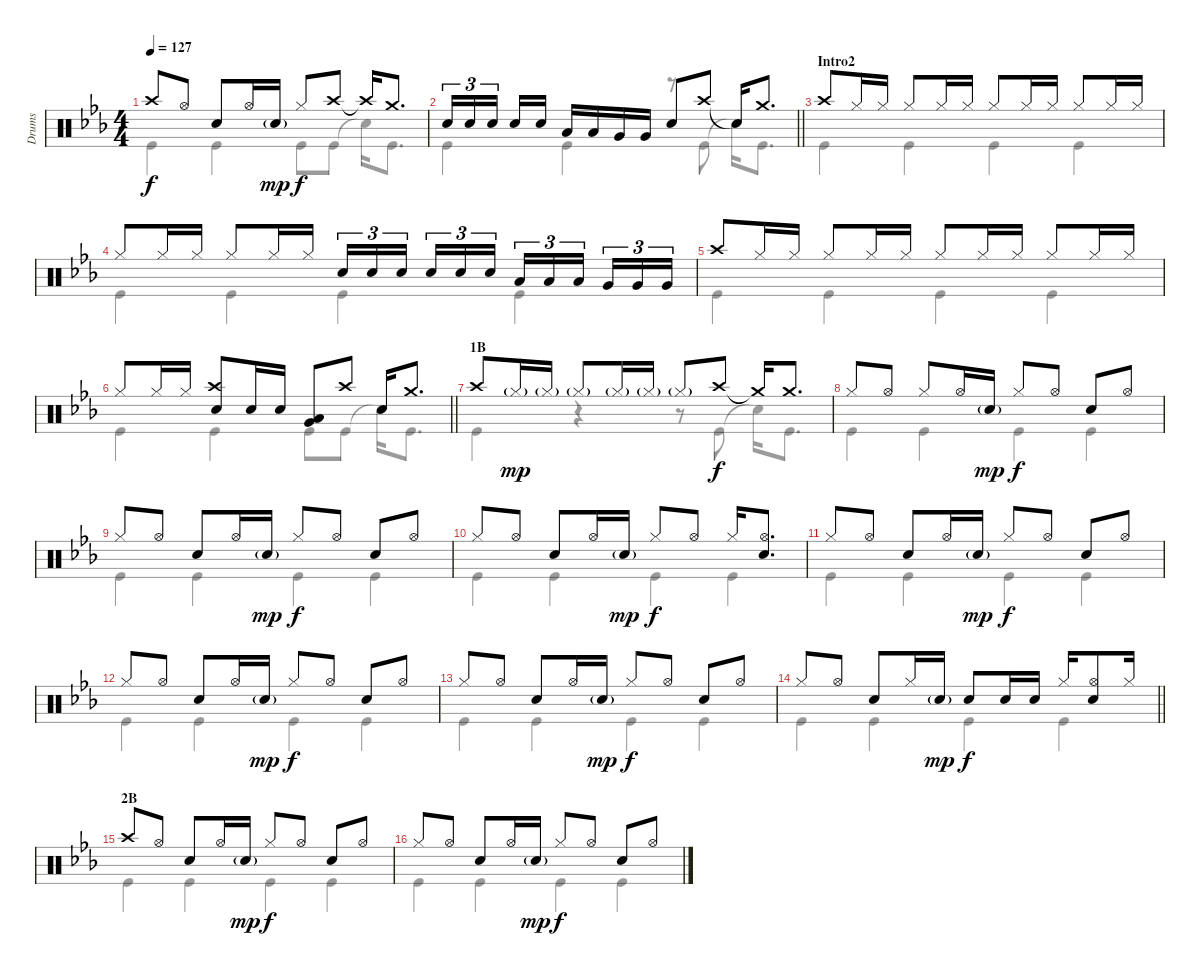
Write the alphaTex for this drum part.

\track ("Drums" "Drums") {instrument percussion}
\staff {score}
\articulation defaults
\voice
\ts (4 4)
\tempo 127
\clef neutral
\ks eb "Crash high (hit)".8{dy f} "Hi-Hat (open)".8 "Snare (hit) 2".8 "Hi-Hat (open)".16 "Snare (hit) 2"{g}.16{dy mp} "Hi-Hat (closed)".8{dy f} "Crash high (hit)".8 "Crash high (hit)"{t}.16 "Crash medium (hit)".8{d}
|
\barLineRight lightlight "Snare (hit) 2".16{tu (3 2)} "Snare (hit) 2".16{tu (3 2)} "Snare (hit) 2".16{tu (3 2) beam splitsecondary} "Snare (hit) 2".16 "Snare (hit) 2".16 "Low Tom (hit)".16 "Low Tom (hit)".16 "Very Low Tom (hit)".16 "Very Low Tom (hit)".16 "Snare (hit) 2".8 "Crash high (hit)".8 "Snare (hit)"{t}.16 "Crash medium (hit)".8{d}
|
\section ("" "Intro2")
"Crash high (hit)".8 "Hi-Hat (closed)".16 "Hi-Hat (closed)".16 "Hi-Hat (closed)".8 "Hi-Hat (closed)".16 "Hi-Hat (closed)".16 "Hi-Hat (closed)".8 "Hi-Hat (closed)".16 "Hi-Hat (closed)".16 "Hi-Hat (closed)".8 "Hi-Hat (closed)".16 "Hi-Hat (closed)".16 |
"Hi-Hat (closed)".8 "Hi-Hat (closed)".16 "Hi-Hat (closed)".16 "Hi-Hat (closed)".8 "Hi-Hat (closed)".16 "Hi-Hat (closed)".16 "Snare (hit) 2".16{tu (3 2)} "Snare (hit) 2".16{tu (3 2)} "Snare (hit) 2".16{tu (3 2) beam splitsecondary} "Snare (hit) 2".16{tu (3 2)} "Snare (hit) 2".16{tu (3 2)} "Snare (hit) 2".16{tu (3 2)} "Low Tom (hit)".16{tu (3 2)} "Low Tom (hit)".16{tu (3 2)} "Low Tom (hit)".16{tu (3 2) beam splitsecondary} "Very Low Tom (hit)".16{tu (3 2)} "Very Low Tom (hit)".16{tu (3 2)} "Very Low Tom (hit)".16{tu (3 2)} |
"Crash high (hit)".8 "Hi-Hat (closed)".16 "Hi-Hat (closed)".16 "Hi-Hat (closed)".8 "Hi-Hat (closed)".16 "Hi-Hat (closed)".16 "Hi-Hat (closed)".8 "Hi-Hat (closed)".16 "Hi-Hat (closed)".16 "Hi-Hat (closed)".8 "Hi-Hat (closed)".16 "Hi-Hat (closed)".16 |
\barLineRight lightlight "Hi-Hat (closed)".8 "Hi-Hat (closed)".16 "Hi-Hat (closed)".16
("Crash high (hit)" "Snare (hit) 2").8 "Snare (hit) 2".16 "Snare (hit) 2".16 ("Low Tom (hit)" "Very Low Tom (hit)").8 "Crash high (hit)".8 "Snare (hit) 2".16 "Crash medium (hit)".8{d} |
\section ("" "1B")
"Crash high (hit)".8 "Hi-Hat (closed)"{g}.16{dy mp} "Hi-Hat (closed)"{g}.16 "Hi-Hat (closed)"{g}.8 "Hi-Hat (closed)"{g}.16 "Hi-Hat (closed)"{g}.16 "Hi-Hat (closed)"{g}.8 "Crash high (hit)".8{dy f} "Crash medium (hit)"{t}.16 "Crash medium (hit)".8{d} |
"Hi-Hat (closed)".8 "Hi-Hat (open)".8 "Hi-Hat (closed)".8 "Hi-Hat (open)".16 "Snare (hit) 2"{g}.16{dy mp} "Hi-Hat (closed)".8{dy f} "Hi-Hat (open)".8 "Snare (hit) 2".8 "Hi-Hat (open)".8 |
"Hi-Hat (closed)".8 "Hi-Hat (open)".8 "Snare (hit) 2".8 "Hi-Hat (open)".16 "Snare (hit) 2"{g}.16{dy mp} "Hi-Hat (closed)".8{dy f} "Hi-Hat (open)".8 "Snare (hit) 2".8 "Hi-Hat (open)".8 |
"Hi-Hat (closed)".8 "Hi-Hat (open)".8 "Snare (hit) 2".8 "Hi-Hat (open)".16 "Snare (hit) 2"{g}.16{dy mp} "Hi-Hat (closed)".8{dy f} "Hi-Hat (open)".8 "Hi-Hat (closed)".16 ("Hi-Hat (open)" "Snare (hit) 2").8{d} |
"Hi-Hat (closed)".8 "Hi-Hat (open)".8 "Snare (hit) 2".8 "Hi-Hat (open)".16 "Snare (hit) 2"{g}.16{dy mp} "Hi-Hat (closed)".8{dy f} "Hi-Hat (open)".8 "Snare (hit) 2".8 "Hi-Hat (open)".8 |
"Hi-Hat (closed)".8 "Hi-Hat (open)".8 "Snare (hit) 2".8 "Hi-Hat (open)".16 "Snare (hit) 2"{g}.16{dy mp} "Hi-Hat (closed)".8{dy f} "Hi-Hat (open)".8 "Snare (hit) 2".8 "Hi-Hat (open)".8 |
"Hi-Hat (closed)".8 "Hi-Hat (open)".8 "Snare (hit) 2".8 "Hi-Hat (open)".16 "Snare (hit) 2"{g}.16{dy mp} "Hi-Hat (closed)".8{dy f} "Hi-Hat (open)".8 "Snare (hit) 2".8 "Hi-Hat (open)".8 |
\barLineRight lightlight "Hi-Hat (closed)".8 "Hi-Hat (open)".8 "Snare (hit) 2".8 "Hi-Hat (closed)".16 "Snare (hit) 2"{g}.16{dy mp} "Snare (hit) 2".8{dy f} "Snare (hit) 2".16 "Snare (hit) 2".16 "Hi-Hat (closed)".16
("Hi-Hat (open)" "Snare (hit) 2").8 "Hi-Hat (closed)".16 |
\section ("" "2B")
"Crash high (hit)".8 "Hi-Hat (open)".8 "Snare (hit) 2".8 "Hi-Hat (open)".16 "Snare (hit) 2"{g}.16{dy mp} "Hi-Hat (closed)".8{dy f} "Hi-Hat (open)".8 "Snare (hit) 2".8 "Hi-Hat (open)".8 |
"Hi-Hat (closed)".8 "Hi-Hat (open)".8 "Snare (hit) 2".8 "Hi-Hat (open)".16 "Snare (hit) 2"{g}.16{dy mp} "Hi-Hat (closed)".8{dy f} "Hi-Hat (open)".8 "Snare (hit) 2".8 "Hi-Hat (open)".8
\voice
\clef neutral
\ottava regular
\simile none
\ks eb "Kick (hit)".4{dy f} "Kick (hit)".4 "Kick (hit)".8 "Kick (hit)".8 "Snare (hit)"{t}.16 "Kick (hit)".8{d}
|
\barLineRight lightlight "Kick (hit)".4 "Kick (hit)".4
r.8 "Kick (hit)".8 "Snare (hit)"{t}.16 "Kick (hit)".8{d} |
"Kick (hit)".4 "Kick (hit)".4 "Kick (hit)".4 "Kick (hit)".4 |
"Kick (hit)".4 "Kick (hit)".4 "Kick (hit)".4 "Kick (hit)".4 |
"Kick (hit)".4 "Kick (hit)".4 "Kick (hit)".4 "Kick (hit)".4 |
\barLineRight lightlight "Kick (hit)".4 "Kick (hit)".4 "Kick (hit)".8 "Kick (hit)".8 "Snare (hit)"{t}.16 "Kick (hit)".8{d}
|
"Kick (hit)".4 r.4 r.8 "Kick (hit)".8 "Snare (hit)"{t}.16 "Kick (hit)".8{d} |
"Kick (hit)".4 "Kick (hit)".4 "Kick (hit)".4 "Kick (hit)".4 |
"Kick (hit)".4 "Kick (hit)".4 "Kick (hit)".4 "Kick (hit)".4 |
"Kick (hit)".4 "Kick (hit)".4 "Kick (hit)".4 "Kick (hit)".4 |
"Kick (hit)".4 "Kick (hit)".4 "Kick (hit)".4 "Kick (hit)".4 |
"Kick (hit)".4 "Kick (hit)".4 "Kick (hit)".4 "Kick (hit)".4 |
"Kick (hit)".4 "Kick (hit)".4 "Kick (hit)".4 "Kick (hit)".4 |
\barLineRight lightlight "Kick (hit)".4 "Kick (hit)".4 "Kick (hit)".4 "Kick (hit)".4
|
"Kick (hit)".4 "Kick (hit)".4 "Kick (hit)".4 "Kick (hit)".4 |
"Kick (hit)".4 "Kick (hit)".4 "Kick (hit)".4 "Kick (hit)".4
